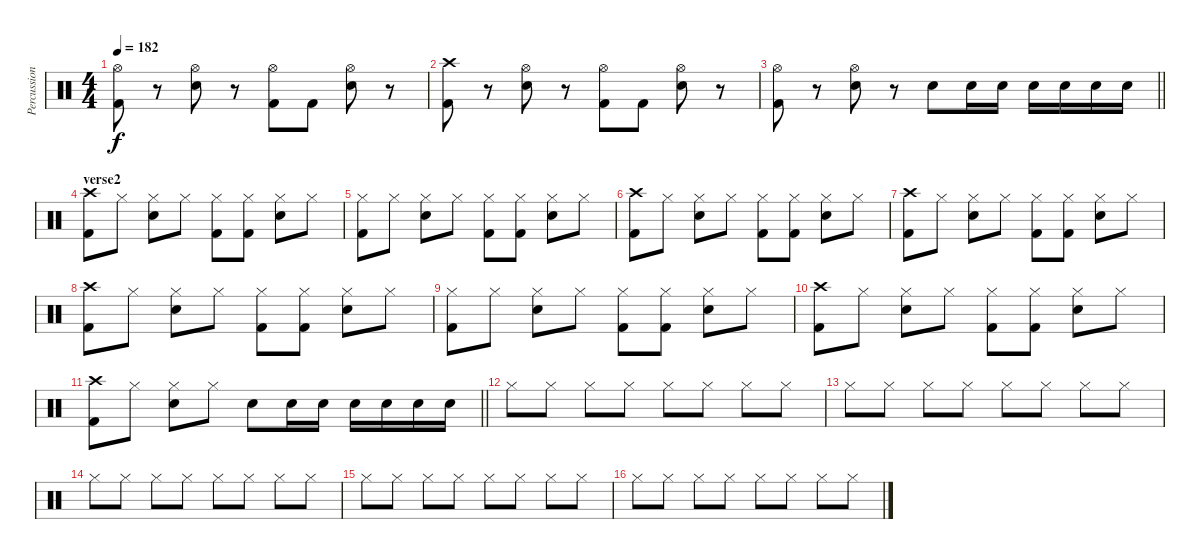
\track ("Percussion" "Percussion") {instrument percussion}
\staff {score}
\articulation defaults
\ts (4 4)
\tempo 182
\clef neutral
\ks c
("Hi-Hat (open)" "Kick (hit) 2").8{dy f} r.8 ("Hi-Hat (open)" "Snare (hit) 2").8 r.8 ("Hi-Hat (open)" "Kick (hit) 2").8 "Kick (hit) 2".8 ("Hi-Hat (open)" "Snare (hit) 2").8 r.8 |
("Crash high (hit)" "Kick (hit) 2").8 r.8 ("Hi-Hat (open)" "Snare (hit) 2").8 r.8 ("Hi-Hat (open)" "Kick (hit) 2").8 "Kick (hit) 2".8 ("Hi-Hat (open)" "Snare (hit) 2").8 r.8 |
\barLineRight lightlight
("Hi-Hat (open)" "Kick (hit) 2").8 r.8 ("Hi-Hat (open)" "Snare (hit) 2").8 r.8 "Snare (hit) 2".8 "Snare (hit) 2".16 "Snare (hit) 2".16 "Snare (hit) 2".16 "Snare (hit) 2".16 "Snare (hit) 2".16 "Snare (hit) 2".16 |
\section ("" "verse2")
("Crash high (hit)" "Kick (hit) 2").8 "Hi-Hat (closed)".8 ("Hi-Hat (closed)" "Snare (hit) 2").8 "Hi-Hat (closed)".8 ("Hi-Hat (closed)" "Kick (hit) 2").8 ("Hi-Hat (closed)" "Kick (hit) 2").8 ("Hi-Hat (closed)" "Snare (hit) 2").8 "Hi-Hat (closed)".8 |
("Hi-Hat (closed)" "Kick (hit) 2").8 "Hi-Hat (closed)".8 ("Hi-Hat (closed)" "Snare (hit) 2").8 "Hi-Hat (closed)".8 ("Hi-Hat (closed)" "Kick (hit) 2").8 ("Hi-Hat (closed)" "Kick (hit) 2").8 ("Hi-Hat (closed)" "Snare (hit) 2").8 "Hi-Hat (closed)".8 |
("Crash high (hit)" "Kick (hit) 2").8 "Hi-Hat (closed)".8 ("Hi-Hat (closed)" "Snare (hit) 2").8 "Hi-Hat (closed)".8 ("Hi-Hat (closed)" "Kick (hit) 2").8 ("Hi-Hat (closed)" "Kick (hit) 2").8 ("Hi-Hat (closed)" "Snare (hit) 2").8 "Hi-Hat (closed)".8 |
("Crash high (hit)" "Kick (hit) 2").8 "Hi-Hat (closed)".8 ("Hi-Hat (closed)" "Snare (hit) 2").8 "Hi-Hat (closed)".8 ("Hi-Hat (closed)" "Kick (hit) 2").8 ("Hi-Hat (closed)" "Kick (hit) 2").8 ("Hi-Hat (closed)" "Snare (hit) 2").8 "Hi-Hat (closed)".8 |
("Crash high (hit)" "Kick (hit) 2").8 "Hi-Hat (closed)".8 ("Hi-Hat (closed)" "Snare (hit) 2").8 "Hi-Hat (closed)".8 ("Hi-Hat (closed)" "Kick (hit) 2").8 ("Hi-Hat (closed)" "Kick (hit) 2").8 ("Hi-Hat (closed)" "Snare (hit) 2").8 "Hi-Hat (closed)".8 |
("Hi-Hat (closed)" "Kick (hit) 2").8 "Hi-Hat (closed)".8 ("Hi-Hat (closed)" "Snare (hit) 2").8 "Hi-Hat (closed)".8 ("Hi-Hat (closed)" "Kick (hit) 2").8 ("Hi-Hat (closed)" "Kick (hit) 2").8 ("Hi-Hat (closed)" "Snare (hit) 2").8 "Hi-Hat (closed)".8 |
("Crash high (hit)" "Kick (hit) 2").8 "Hi-Hat (closed)".8 ("Hi-Hat (closed)" "Snare (hit) 2").8 "Hi-Hat (closed)".8 ("Hi-Hat (closed)" "Kick (hit) 2").8 ("Hi-Hat (closed)" "Kick (hit) 2").8 ("Hi-Hat (closed)" "Snare (hit) 2").8 "Hi-Hat (closed)".8 |
\barLineRight lightlight
("Crash high (hit)" "Kick (hit) 2").8 "Hi-Hat (closed)".8 ("Hi-Hat (closed)" "Snare (hit) 2").8 "Hi-Hat (closed)".8 "Snare (hit) 2".8 "Snare (hit) 2".16 "Snare (hit) 2".16 "Snare (hit) 2".16 "Snare (hit) 2".16 "Snare (hit) 2".16 "Snare (hit) 2".16 |
"Hi-Hat (closed)".8 "Hi-Hat (closed)".8 "Hi-Hat (closed)".8 "Hi-Hat (closed)".8 "Hi-Hat (closed)".8 "Hi-Hat (closed)".8 "Hi-Hat (closed)".8 "Hi-Hat (closed)".8 |
"Hi-Hat (closed)".8 "Hi-Hat (closed)".8 "Hi-Hat (closed)".8 "Hi-Hat (closed)".8 "Hi-Hat (closed)".8 "Hi-Hat (closed)".8 "Hi-Hat (closed)".8 "Hi-Hat (closed)".8 |
"Hi-Hat (closed)".8 "Hi-Hat (closed)".8 "Hi-Hat (closed)".8 "Hi-Hat (closed)".8 "Hi-Hat (closed)".8 "Hi-Hat (closed)".8 "Hi-Hat (closed)".8 "Hi-Hat (closed)".8 |
"Hi-Hat (closed)".8 "Hi-Hat (closed)".8 "Hi-Hat (closed)".8 "Hi-Hat (closed)".8 "Hi-Hat (closed)".8 "Hi-Hat (closed)".8 "Hi-Hat (closed)".8 "Hi-Hat (closed)".8 |
"Hi-Hat (closed)".8 "Hi-Hat (closed)".8 "Hi-Hat (closed)".8 "Hi-Hat (closed)".8 "Hi-Hat (closed)".8 "Hi-Hat (closed)".8 "Hi-Hat (closed)".8 "Hi-Hat (closed)".8
